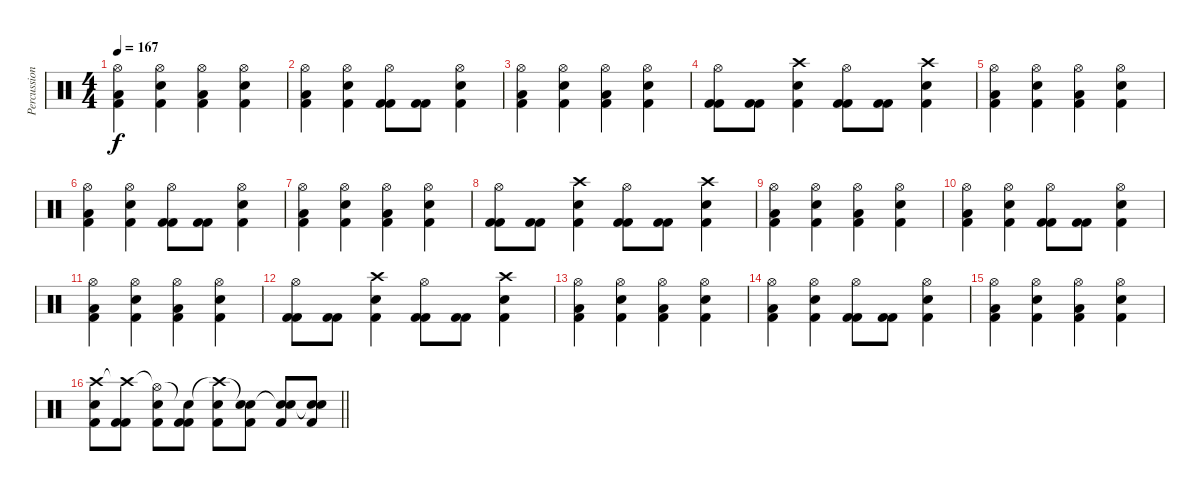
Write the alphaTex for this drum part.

\track ("Percussions" "Percussion") {instrument percussion}
\staff {score}
\articulation defaults
\ts (4 4)
\tempo 167
\clef neutral
\ks c
("Hi-Hat (open)" "Low Floor Tom (hit)" "Kick (hit) 2").4{dy f} ("Hi-Hat (open)" "Electric Snare (hit)" "Kick (hit) 2").4 ("Hi-Hat (open)" "Low Floor Tom (hit)" "Kick (hit) 2").4 ("Hi-Hat (open)" "Electric Snare (hit)" "Kick (hit) 2").4 |
("Hi-Hat (open)" "Low Floor Tom (hit)" "Kick (hit) 2").4 ("Hi-Hat (open)" "Electric Snare (hit)" "Kick (hit) 2").4 ("Hi-Hat (open)" "Kick (hit) 2" "Kick (hit) 2").8 ("Kick (hit) 2" "Kick (hit) 2").8 ("Hi-Hat (open)" "Electric Snare (hit)" "Kick (hit) 2").4 |
("Hi-Hat (open)" "Low Floor Tom (hit)" "Kick (hit) 2").4 ("Hi-Hat (open)" "Electric Snare (hit)" "Kick (hit) 2").4 ("Hi-Hat (open)" "Low Floor Tom (hit)" "Kick (hit) 2").4 ("Hi-Hat (open)" "Electric Snare (hit)" "Kick (hit) 2").4 |
("Hi-Hat (open)" "Kick (hit) 2" "Kick (hit) 2").8 ("Kick (hit) 2" "Kick (hit) 2").8 ("Crash high (hit)" "Electric Snare (hit)" "Kick (hit) 2").4 ("Hi-Hat (open)" "Kick (hit) 2" "Kick (hit) 2").8 ("Kick (hit) 2" "Kick (hit) 2").8 ("Crash high (hit)" "Electric Snare (hit)" "Kick (hit) 2").4 |
("Hi-Hat (open)" "Low Floor Tom (hit)" "Kick (hit) 2").4 ("Hi-Hat (open)" "Electric Snare (hit)" "Kick (hit) 2").4 ("Hi-Hat (open)" "Low Floor Tom (hit)" "Kick (hit) 2").4 ("Hi-Hat (open)" "Electric Snare (hit)" "Kick (hit) 2").4 |
("Hi-Hat (open)" "Low Floor Tom (hit)" "Kick (hit) 2").4 ("Hi-Hat (open)" "Electric Snare (hit)" "Kick (hit) 2").4 ("Hi-Hat (open)" "Kick (hit) 2" "Kick (hit) 2").8 ("Kick (hit) 2" "Kick (hit) 2").8 ("Hi-Hat (open)" "Electric Snare (hit)" "Kick (hit) 2").4 |
("Hi-Hat (open)" "Low Floor Tom (hit)" "Kick (hit) 2").4 ("Hi-Hat (open)" "Electric Snare (hit)" "Kick (hit) 2").4 ("Hi-Hat (open)" "Low Floor Tom (hit)" "Kick (hit) 2").4 ("Hi-Hat (open)" "Electric Snare (hit)" "Kick (hit) 2").4 |
("Hi-Hat (open)" "Kick (hit) 2" "Kick (hit) 2").8 ("Kick (hit) 2" "Kick (hit) 2").8 ("Crash high (hit)" "Electric Snare (hit)" "Kick (hit) 2").4 ("Hi-Hat (open)" "Kick (hit) 2" "Kick (hit) 2").8 ("Kick (hit) 2" "Kick (hit) 2").8 ("Crash high (hit)" "Electric Snare (hit)" "Kick (hit) 2").4 |
("Hi-Hat (open)" "Low Floor Tom (hit)" "Kick (hit) 2").4 ("Hi-Hat (open)" "Electric Snare (hit)" "Kick (hit) 2").4 ("Hi-Hat (open)" "Low Floor Tom (hit)" "Kick (hit) 2").4 ("Hi-Hat (open)" "Electric Snare (hit)" "Kick (hit) 2").4 |
("Hi-Hat (open)" "Low Floor Tom (hit)" "Kick (hit) 2").4 ("Hi-Hat (open)" "Electric Snare (hit)" "Kick (hit) 2").4 ("Hi-Hat (open)" "Kick (hit) 2" "Kick (hit) 2").8 ("Kick (hit) 2" "Kick (hit) 2").8 ("Hi-Hat (open)" "Electric Snare (hit)" "Kick (hit) 2").4 |
("Hi-Hat (open)" "Low Floor Tom (hit)" "Kick (hit) 2").4 ("Hi-Hat (open)" "Electric Snare (hit)" "Kick (hit) 2").4 ("Hi-Hat (open)" "Low Floor Tom (hit)" "Kick (hit) 2").4 ("Hi-Hat (open)" "Electric Snare (hit)" "Kick (hit) 2").4 |
("Hi-Hat (open)" "Kick (hit) 2" "Kick (hit) 2").8 ("Kick (hit) 2" "Kick (hit) 2").8 ("Crash high (hit)" "Electric Snare (hit)" "Kick (hit) 2").4 ("Hi-Hat (open)" "Kick (hit) 2" "Kick (hit) 2").8 ("Kick (hit) 2" "Kick (hit) 2").8 ("Crash high (hit)" "Electric Snare (hit)" "Kick (hit) 2").4 |
("Hi-Hat (open)" "Low Floor Tom (hit)" "Kick (hit) 2").4 ("Hi-Hat (open)" "Electric Snare (hit)" "Kick (hit) 2").4 ("Hi-Hat (open)" "Low Floor Tom (hit)" "Kick (hit) 2").4 ("Hi-Hat (open)" "Electric Snare (hit)" "Kick (hit) 2").4 |
("Hi-Hat (open)" "Low Floor Tom (hit)" "Kick (hit) 2").4 ("Hi-Hat (open)" "Electric Snare (hit)" "Kick (hit) 2").4 ("Hi-Hat (open)" "Kick (hit) 2" "Kick (hit) 2").8 ("Kick (hit) 2" "Kick (hit) 2").8 ("Hi-Hat (open)" "Electric Snare (hit)" "Kick (hit) 2").4 |
("Hi-Hat (open)" "Low Floor Tom (hit)" "Kick (hit) 2").4 ("Hi-Hat (open)" "Electric Snare (hit)" "Kick (hit) 2").4 ("Hi-Hat (open)" "Low Floor Tom (hit)" "Kick (hit) 2").4 ("Hi-Hat (open)" "Electric Snare (hit)" "Kick (hit) 2").4 |
\barLineRight lightlight
("Crash high (hit)" "Electric Snare (hit)" "Kick (hit) 2").8 ("Crash high (hit)"{t} "Kick (hit) 2" "Kick (hit) 2").8 ("Hi-Hat (open)"{t} "Electric Snare (hit)" "Kick (hit) 2").8 ("Snare (hit)"{t} "Kick (hit) 2" "Kick (hit) 2").8 ("Crash high (hit)"{t} "Electric Snare (hit)" "Kick (hit) 2").8 ("Snare (hit)"{t} "Electric Snare (hit)" "Kick (hit) 2").8 ("Snare (hit)"{t} "Electric Snare (hit)" "Kick (hit) 2").8 ("Snare (hit)"{t} "Electric Snare (hit)" "Kick (hit) 2").8
